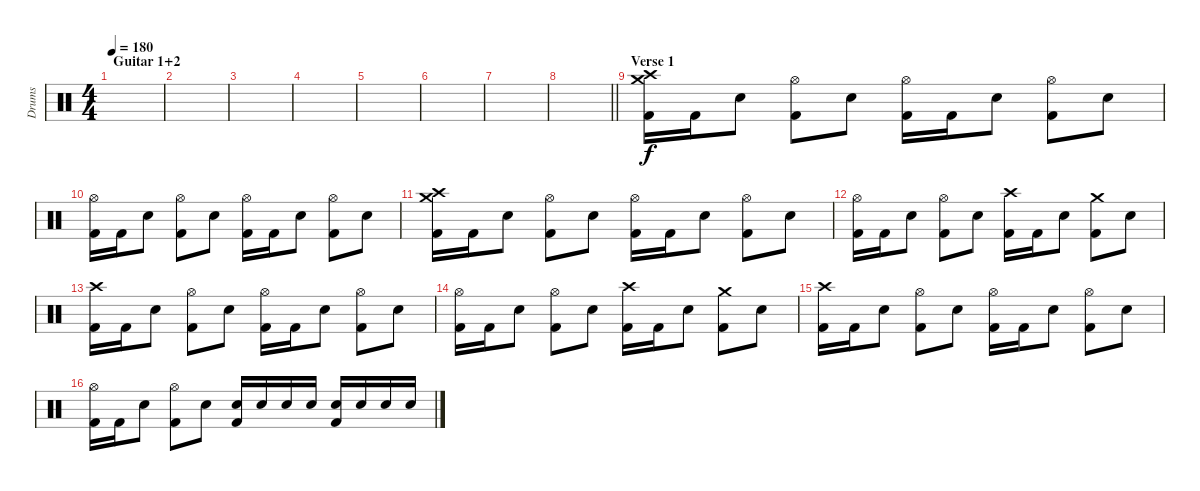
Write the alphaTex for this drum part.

\track ("Drums" "Drums") {instrument percussion}
\staff {score}
\articulation defaults
\ts (4 4)
\section ("" "Guitar 1+2")
\tempo 180
\clef neutral
\ks c
|
|
|
|
|
|
|
\barLineRight lightlight
|
\section ("" "Verse 1")
("Crash high (hit)" "Crash medium (hit)" "Kick (hit) 2").16 "Kick (hit) 2".16 "Electric Snare (hit)".8 ("Hi-Hat (open)" "Kick (hit) 2").8 "Electric Snare (hit)".8 ("Hi-Hat (open)" "Kick (hit) 2").16 "Kick (hit) 2".16 "Electric Snare (hit)".8 ("Hi-Hat (open)" "Kick (hit) 2").8 "Electric Snare (hit)".8 |
("Hi-Hat (open)" "Kick (hit) 2").16 "Kick (hit) 2".16 "Electric Snare (hit)".8 ("Hi-Hat (open)" "Kick (hit) 2").8 "Electric Snare (hit)".8 ("Hi-Hat (open)" "Kick (hit) 2").16 "Kick (hit) 2".16 "Electric Snare (hit)".8 ("Hi-Hat (open)" "Kick (hit) 2").8 "Electric Snare (hit)".8 |
("Crash high (hit)" "Crash medium (hit)" "Kick (hit) 2").16 "Kick (hit) 2".16 "Electric Snare (hit)".8 ("Hi-Hat (open)" "Kick (hit) 2").8 "Electric Snare (hit)".8 ("Hi-Hat (open)" "Kick (hit) 2").16 "Kick (hit) 2".16 "Electric Snare (hit)".8 ("Hi-Hat (open)" "Kick (hit) 2").8 "Electric Snare (hit)".8 |
("Hi-Hat (open)" "Kick (hit) 2").16 "Kick (hit) 2".16 "Electric Snare (hit)".8 ("Hi-Hat (open)" "Kick (hit) 2").8 "Electric Snare (hit)".8 ("Crash high (hit)" "Kick (hit) 2").16 "Kick (hit) 2".16 "Electric Snare (hit)".8 ("Crash medium (hit)" "Kick (hit) 2").8 "Electric Snare (hit)".8 |
("Crash high (hit)" "Kick (hit) 2").16 "Kick (hit) 2".16 "Electric Snare (hit)".8 ("Hi-Hat (open)" "Kick (hit) 2").8 "Electric Snare (hit)".8 ("Hi-Hat (open)" "Kick (hit) 2").16 "Kick (hit) 2".16 "Electric Snare (hit)".8 ("Hi-Hat (open)" "Kick (hit) 2").8 "Electric Snare (hit)".8 |
("Hi-Hat (open)" "Kick (hit) 2").16 "Kick (hit) 2".16 "Electric Snare (hit)".8 ("Hi-Hat (open)" "Kick (hit) 2").8 "Electric Snare (hit)".8 ("Crash high (hit)" "Kick (hit) 2").16 "Kick (hit) 2".16 "Electric Snare (hit)".8 ("Crash medium (hit)" "Kick (hit) 2").8 "Electric Snare (hit)".8 |
("Crash high (hit)" "Kick (hit) 2").16 "Kick (hit) 2".16 "Electric Snare (hit)".8 ("Hi-Hat (open)" "Kick (hit) 2").8 "Electric Snare (hit)".8 ("Hi-Hat (open)" "Kick (hit) 2").16 "Kick (hit) 2".16 "Electric Snare (hit)".8 ("Hi-Hat (open)" "Kick (hit) 2").8 "Electric Snare (hit)".8 |
("Hi-Hat (open)" "Kick (hit) 2").16 "Kick (hit) 2".16 "Electric Snare (hit)".8 ("Hi-Hat (open)" "Kick (hit) 2").8 "Electric Snare (hit)".8 ("Electric Snare (hit)" "Kick (hit) 2").16 "Electric Snare (hit)".16 "Electric Snare (hit)".16 "Electric Snare (hit)".16 ("Electric Snare (hit)" "Kick (hit) 2").16 "Electric Snare (hit)".16 "Electric Snare (hit)".16 "Electric Snare (hit)".16
